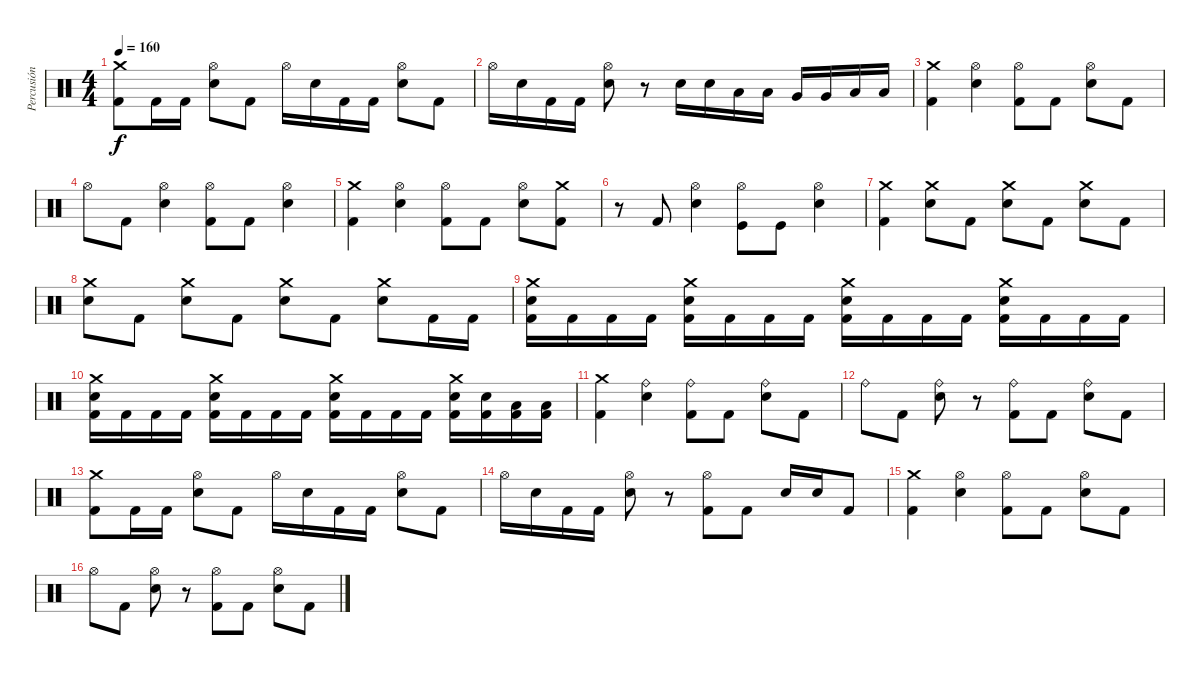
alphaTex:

\track ("Percusión" "Percusión") {instrument percussion}
\staff {score}
\articulation defaults
\ts (4 4)
\tempo 160
\clef neutral
\ks c
("Crash medium (hit)" "Kick (hit) 2").8{dy f} "Kick (hit) 2".16 "Kick (hit) 2".16 ("Hi-Hat (open)" "Snare (hit) 2").8 "Kick (hit) 2".8 "Hi-Hat (open)".16 "Snare (hit) 2".16 "Kick (hit) 2".16 "Kick (hit) 2".16 ("Hi-Hat (open)" "Snare (hit) 2").8 "Kick (hit) 2".8 |
"Hi-Hat (open)".16 "Snare (hit) 2".16 "Kick (hit) 2".16 "Kick (hit) 2".16 ("Hi-Hat (open)" "Snare (hit) 2").8 r.8 "Snare (hit) 2".16 "Snare (hit) 2".16 "Low Tom (hit)".16 "Low Tom (hit)".16 "Very Low Tom (hit)".16 "Very Low Tom (hit)".16 "Low Floor Tom (hit)".16 "Low Floor Tom (hit)".16 |
("Crash medium (hit)" "Kick (hit) 2").4 ("Hi-Hat (open)" "Snare (hit) 2").4 ("Hi-Hat (open)" "Kick (hit) 2").8 "Kick (hit) 2".8 ("Hi-Hat (open)" "Snare (hit) 2").8 "Kick (hit) 2".8 |
"Hi-Hat (open)".8 "Kick (hit) 2".8 ("Hi-Hat (open)" "Snare (hit) 2").4 ("Hi-Hat (open)" "Kick (hit) 2").8 "Kick (hit) 2".8 ("Hi-Hat (open)" "Snare (hit) 2").4 |
("Crash medium (hit)" "Kick (hit) 2").4 ("Hi-Hat (open)" "Snare (hit) 2").4 ("Hi-Hat (open)" "Kick (hit) 2").8 "Kick (hit) 2".8 ("Hi-Hat (open)" "Snare (hit) 2").8 ("Crash medium (hit)" "Kick (hit) 2").8 |
r.8 "Kick (hit) 2".8 ("Hi-Hat (open)" "Snare (hit) 2").4 ("Hi-Hat (open)" "Kick (hit)").8 "Kick (hit)".8 ("Hi-Hat (open)" "Snare (hit) 2").4 |
("Crash medium (hit)" "Kick (hit) 2").4 ("Crash medium (hit)" "Snare (hit) 2").8 "Kick (hit) 2".8 ("Crash medium (hit)" "Snare (hit) 2").8 "Kick (hit) 2".8 ("Crash medium (hit)" "Snare (hit) 2").8 "Kick (hit) 2".8 |
("Crash medium (hit)" "Snare (hit) 2").8 "Kick (hit) 2".8 ("Crash medium (hit)" "Snare (hit) 2").8 "Kick (hit) 2".8 ("Crash medium (hit)" "Snare (hit) 2").8 "Kick (hit) 2".8 ("Crash medium (hit)" "Snare (hit) 2").8 "Kick (hit) 2".16 "Kick (hit) 2".16 |
("Crash medium (hit)" "Snare (hit) 2" "Kick (hit) 2").16 "Kick (hit) 2".16 "Kick (hit) 2".16 "Kick (hit) 2".16 ("Crash medium (hit)" "Snare (hit) 2" "Kick (hit) 2").16 "Kick (hit) 2".16 "Kick (hit) 2".16 "Kick (hit) 2".16 ("Crash medium (hit)" "Snare (hit) 2" "Kick (hit) 2").16 "Kick (hit) 2".16 "Kick (hit) 2".16 "Kick (hit) 2".16 ("Crash medium (hit)" "Snare (hit) 2" "Kick (hit) 2").16 "Kick (hit) 2".16 "Kick (hit) 2".16 "Kick (hit) 2".16 |
("Crash medium (hit)" "Snare (hit) 2" "Kick (hit) 2").16 "Kick (hit) 2".16 "Kick (hit) 2".16 "Kick (hit) 2".16 ("Crash medium (hit)" "Snare (hit) 2" "Kick (hit) 2").16 "Kick (hit) 2".16 "Kick (hit) 2".16 "Kick (hit) 2".16 ("Snare (hit) 2" "Crash medium (hit)" "Kick (hit) 2").16 "Kick (hit) 2".16 "Kick (hit) 2".16 "Kick (hit) 2".16 ("Snare (hit) 2" "Crash medium (hit)" "Kick (hit) 2").16 ("Snare (hit) 2" "Kick (hit) 2").16 ("Low Tom (hit)" "Kick (hit) 2").16 ("Low Tom (hit)" "Kick (hit) 2").16 |
("Crash medium (hit)" "Kick (hit) 2").4 ("Ride (bell)" "Snare (hit) 2").4 ("Ride (bell)" "Kick (hit) 2").8 "Kick (hit) 2".8 ("Ride (bell)" "Snare (hit) 2").8 "Kick (hit) 2".8 |
"Ride (bell)".8 "Kick (hit) 2".8 ("Ride (bell)" "Snare (hit) 2").8 r.8 ("Ride (bell)" "Kick (hit) 2").8 "Kick (hit) 2".8 ("Ride (bell)" "Snare (hit) 2").8 "Kick (hit) 2".8 |
("Crash medium (hit)" "Kick (hit) 2").8 "Kick (hit) 2".16 "Kick (hit) 2".16 ("Hi-Hat (open)" "Snare (hit) 2").8 "Kick (hit) 2".8 "Hi-Hat (open)".16 "Snare (hit) 2".16 "Kick (hit) 2".16 "Kick (hit) 2".16 ("Hi-Hat (open)" "Snare (hit) 2").8 "Kick (hit) 2".8 |
"Hi-Hat (open)".16 "Snare (hit) 2".16 "Kick (hit) 2".16 "Kick (hit) 2".16 ("Hi-Hat (open)" "Snare (hit) 2").8 r.8 ("Hi-Hat (open)" "Kick (hit) 2").8 "Kick (hit) 2".8 "Snare (hit) 2".16 "Snare (hit) 2".16 "Kick (hit) 2".8 |
("Crash medium (hit)" "Kick (hit) 2").4 ("Hi-Hat (open)" "Snare (hit) 2").4 ("Hi-Hat (open)" "Kick (hit) 2").8 "Kick (hit) 2".8 ("Hi-Hat (open)" "Snare (hit) 2").8 "Kick (hit) 2".8 |
"Hi-Hat (open)".8 "Kick (hit) 2".8 ("Hi-Hat (open)" "Snare (hit) 2").8 r.8 ("Hi-Hat (open)" "Kick (hit) 2").8 "Kick (hit) 2".8 ("Hi-Hat (open)" "Snare (hit) 2").8 "Kick (hit) 2".8
